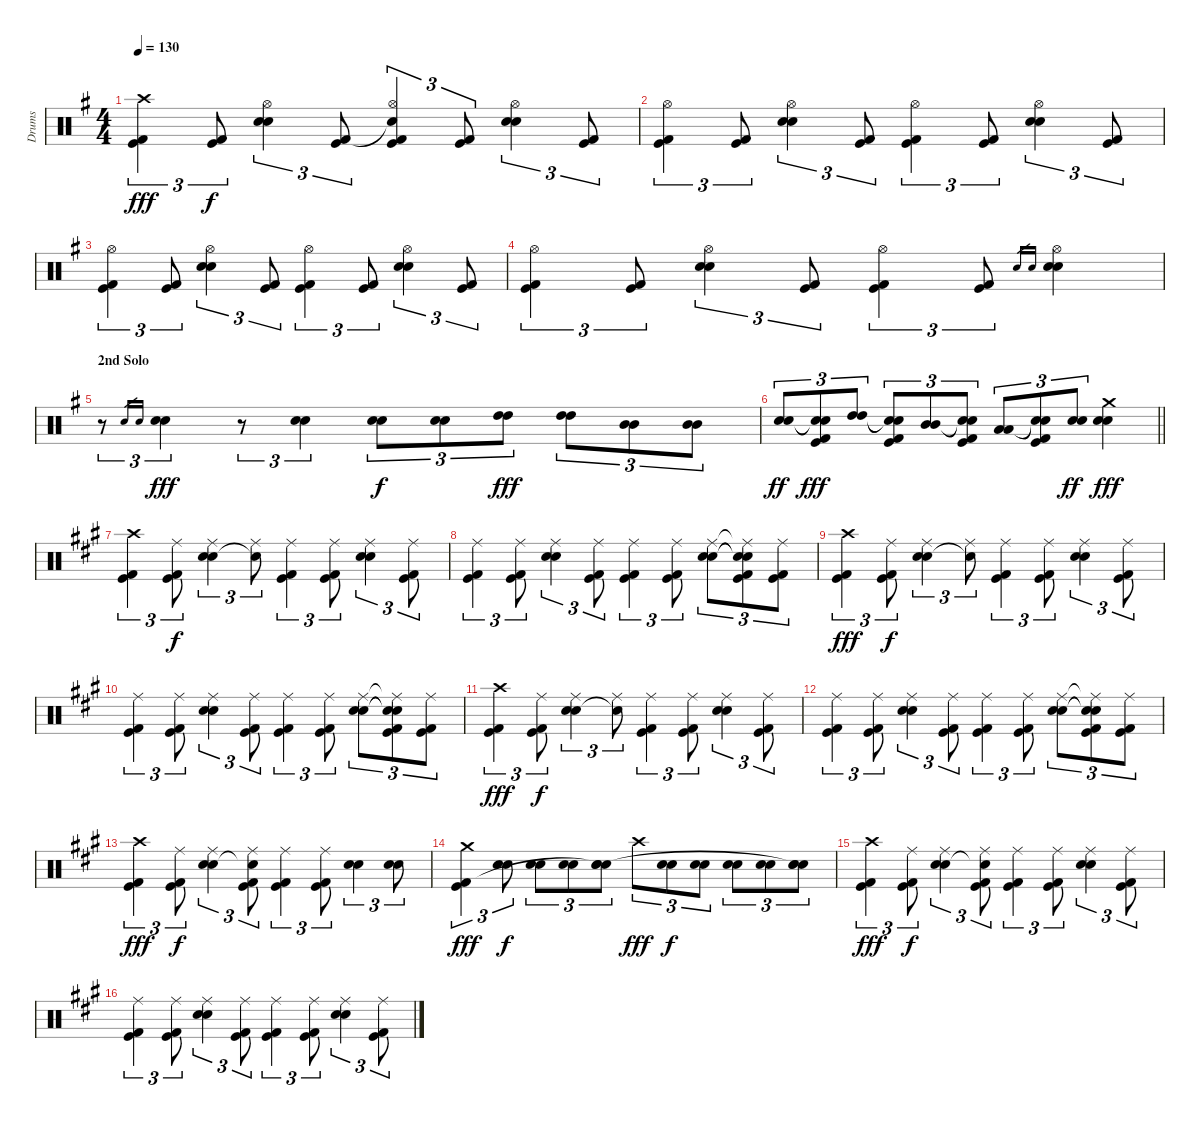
\track ("Drums" "Drums") {instrument percussion}
\staff {score}
\articulation defaults
\ts (4 4)
\tempo 130
\clef neutral
\ks g
("Crash high (hit)" "Kick (hit)" "Kick (hit) 2").4{tu (3 2) dy fff} ("Kick (hit)" "Kick (hit) 2").8{tu (3 2) dy f} ("Hi-Hat (open)" "Electric Snare (hit)" "Snare (hit) 2").4{tu (3 2)} ("Kick (hit)" "Kick (hit) 2").8{tu (3 2)} ("Hi-Hat (open)" "Snare (hit)"{t} "Kick (hit)" "Kick (hit) 2").4{tu (3 2)} ("Kick (hit)" "Kick (hit) 2").8{tu (3 2)} ("Hi-Hat (open)" "Electric Snare (hit)" "Snare (hit) 2").4{tu (3 2)} ("Kick (hit)" "Kick (hit) 2").8{tu (3 2)} |
("Hi-Hat (open)" "Kick (hit)" "Kick (hit) 2").4{tu (3 2)} ("Kick (hit)" "Kick (hit) 2").8{tu (3 2)} ("Hi-Hat (open)" "Electric Snare (hit)" "Snare (hit) 2").4{tu (3 2)} ("Kick (hit)" "Kick (hit) 2").8{tu (3 2)} ("Hi-Hat (open)" "Kick (hit)" "Kick (hit) 2").4{tu (3 2)} ("Kick (hit)" "Kick (hit) 2").8{tu (3 2)} ("Hi-Hat (open)" "Electric Snare (hit)" "Snare (hit) 2").4{tu (3 2)} ("Kick (hit)" "Kick (hit) 2").8{tu (3 2)} |
("Hi-Hat (open)" "Kick (hit)" "Kick (hit) 2").4{tu (3 2)} ("Kick (hit)" "Kick (hit) 2").8{tu (3 2)} ("Hi-Hat (open)" "Electric Snare (hit)" "Snare (hit) 2").4{tu (3 2)} ("Kick (hit)" "Kick (hit) 2").8{tu (3 2)} ("Hi-Hat (open)" "Kick (hit)" "Kick (hit) 2").4{tu (3 2)} ("Kick (hit)" "Kick (hit) 2").8{tu (3 2)} ("Hi-Hat (open)" "Electric Snare (hit)" "Snare (hit) 2").4{tu (3 2)} ("Kick (hit)" "Kick (hit) 2").8{tu (3 2)} |
("Hi-Hat (open)" "Kick (hit)" "Kick (hit) 2").4{tu (3 2)} ("Kick (hit)" "Kick (hit) 2").8{tu (3 2)} ("Hi-Hat (open)" "Electric Snare (hit)" "Snare (hit) 2").4{tu (3 2)} ("Kick (hit)" "Kick (hit) 2").8{tu (3 2)} ("Hi-Hat (open)" "Kick (hit)" "Kick (hit) 2").4{tu (3 2)} ("Kick (hit)" "Kick (hit) 2").8{tu (3 2)} "Electric Snare (hit)".16{gr} "Snare (hit) 2".16{gr} ("Hi-Hat (open)" "Electric Snare (hit)" "Snare (hit) 2").4 |
\section ("" "2nd Solo")
r.8{tu (3 2)} "Electric Snare (hit)".16{gr} "Snare (hit) 2".16{gr} ("Electric Snare (hit)" "Snare (hit) 2").4{tu (3 2) dy fff} r.8{tu (3 2)} ("Electric Snare (hit)" "Snare (hit) 2").4{tu (3 2)} ("Electric Snare (hit)" "Snare (hit) 2").8{tu (3 2) dy f} ("Electric Snare (hit)" "Snare (hit) 2").8{tu (3 2)} ("High Tom (hit)" "High Tom (hit)").8{tu (3 2) dy fff} ("High Tom (hit)" "High Tom (hit)").8{tu (3 2)} ("Mid Tom (hit)" "Mid Tom (hit)").8{tu (3 2)} ("Mid Tom (hit)" "Mid Tom (hit)").8{tu (3 2)} |
\barLineRight lightlight
("Electric Snare (hit)" "Snare (hit) 2").8{tu (3 2) dy ff} ("Snare (hit)"{t} "Snare (hit)"{t} "Kick (hit)" "Kick (hit) 2").8{tu (3 2) dy fff} ("High Tom (hit)" "High Tom (hit)").8{tu (3 2)} ("Snare (hit)"{t} "Snare (hit)"{t} "Kick (hit)" "Kick (hit) 2").8{tu (3 2)} ("Mid Tom (hit)" "Mid Tom (hit)").8{tu (3 2)} ("Snare (hit)"{t} "Snare (hit)"{t} "Kick (hit)" "Kick (hit) 2").8{tu (3 2)} ("Low Tom (hit)" "Low Tom (hit)").8{tu (3 2)} ("Snare (hit)"{t} "Snare (hit)"{t} "Kick (hit)" "Kick (hit) 2").8{tu (3 2)} ("Electric Snare (hit)" "Snare (hit) 2").8{tu (3 2) dy ff} ("Electric Snare (hit)" "Snare (hit) 2" "Crash medium (hit)").4{dy fff} |
\ks a
("Crash high (hit)" "Kick (hit)" "Kick (hit) 2").4{tu (3 2)} ("Ride (middle)" "Kick (hit)" "Kick (hit) 2").8{tu (3 2) dy f} ("Ride (middle)" "Electric Snare (hit)" "Snare (hit) 2").4{tu (3 2)} ("Ride (middle)" "Snare (hit)"{t}).8{tu (3 2)} ("Ride (middle)" "Kick (hit)" "Kick (hit) 2").4{tu (3 2)} ("Ride (middle)" "Kick (hit)" "Kick (hit) 2").8{tu (3 2)} ("Ride (middle)" "Electric Snare (hit)" "Snare (hit) 2").4{tu (3 2)} ("Ride (middle)" "Kick (hit)" "Kick (hit) 2").8{tu (3 2)} |
("Ride (middle)" "Kick (hit)" "Kick (hit) 2").4{tu (3 2)} ("Ride (middle)" "Kick (hit)" "Kick (hit) 2").8{tu (3 2)} ("Ride (middle)" "Electric Snare (hit)" "Snare (hit) 2").4{tu (3 2)} ("Ride (middle)" "Kick (hit)" "Kick (hit) 2").8{tu (3 2)} ("Ride (middle)" "Kick (hit)" "Kick (hit) 2").4{tu (3 2)} ("Ride (middle)" "Kick (hit)" "Kick (hit) 2").8{tu (3 2)} ("Ride (middle)" "Electric Snare (hit)" "Snare (hit) 2").8{tu (3 2)} ("Ride (middle)"{t} "Snare (hit)"{t} "Snare (hit)"{t} "Kick (hit)" "Kick (hit) 2").8{tu (3 2)} ("Ride (middle)" "Kick (hit)" "Kick (hit) 2").8{tu (3 2)} |
("Crash high (hit)" "Kick (hit)" "Kick (hit) 2").4{tu (3 2) dy fff} ("Ride (middle)" "Kick (hit)" "Kick (hit) 2").8{tu (3 2) dy f} ("Ride (middle)" "Electric Snare (hit)" "Snare (hit) 2").4{tu (3 2)} ("Ride (middle)" "Snare (hit)"{t}).8{tu (3 2)} ("Ride (middle)" "Kick (hit)" "Kick (hit) 2").4{tu (3 2)} ("Ride (middle)" "Kick (hit)" "Kick (hit) 2").8{tu (3 2)} ("Ride (middle)" "Electric Snare (hit)" "Snare (hit) 2").4{tu (3 2)} ("Ride (middle)" "Kick (hit)" "Kick (hit) 2").8{tu (3 2)} |
("Ride (middle)" "Kick (hit)" "Kick (hit) 2").4{tu (3 2)} ("Ride (middle)" "Kick (hit)" "Kick (hit) 2").8{tu (3 2)} ("Ride (middle)" "Electric Snare (hit)" "Snare (hit) 2").4{tu (3 2)} ("Ride (middle)" "Kick (hit)" "Kick (hit) 2").8{tu (3 2)} ("Ride (middle)" "Kick (hit)" "Kick (hit) 2").4{tu (3 2)} ("Ride (middle)" "Kick (hit)" "Kick (hit) 2").8{tu (3 2)} ("Ride (middle)" "Electric Snare (hit)" "Snare (hit) 2").8{tu (3 2)} ("Ride (middle)"{t} "Snare (hit)"{t} "Snare (hit)"{t} "Kick (hit)" "Kick (hit) 2").8{tu (3 2)} ("Ride (middle)" "Kick (hit)" "Kick (hit) 2").8{tu (3 2)} |
("Crash high (hit)" "Kick (hit)" "Kick (hit) 2").4{tu (3 2) dy fff} ("Ride (middle)" "Kick (hit)" "Kick (hit) 2").8{tu (3 2) dy f} ("Ride (middle)" "Electric Snare (hit)" "Snare (hit) 2").4{tu (3 2)} ("Ride (middle)" "Snare (hit)"{t}).8{tu (3 2)} ("Ride (middle)" "Kick (hit)" "Kick (hit) 2").4{tu (3 2)} ("Ride (middle)" "Kick (hit)" "Kick (hit) 2").8{tu (3 2)} ("Ride (middle)" "Electric Snare (hit)" "Snare (hit) 2").4{tu (3 2)} ("Ride (middle)" "Kick (hit)" "Kick (hit) 2").8{tu (3 2)} |
("Ride (middle)" "Kick (hit)" "Kick (hit) 2").4{tu (3 2)} ("Ride (middle)" "Kick (hit)" "Kick (hit) 2").8{tu (3 2)} ("Ride (middle)" "Electric Snare (hit)" "Snare (hit) 2").4{tu (3 2)} ("Ride (middle)" "Kick (hit)" "Kick (hit) 2").8{tu (3 2)} ("Ride (middle)" "Kick (hit)" "Kick (hit) 2").4{tu (3 2)} ("Ride (middle)" "Kick (hit)" "Kick (hit) 2").8{tu (3 2)} ("Ride (middle)" "Electric Snare (hit)" "Snare (hit) 2").8{tu (3 2)} ("Ride (middle)"{t} "Snare (hit)"{t} "Snare (hit)"{t} "Kick (hit)" "Kick (hit) 2").8{tu (3 2)} ("Ride (middle)" "Kick (hit)" "Kick (hit) 2").8{tu (3 2)} |
("Crash high (hit)" "Kick (hit)" "Kick (hit) 2").4{tu (3 2) dy fff} ("Ride (middle)" "Kick (hit)" "Kick (hit) 2").8{tu (3 2) dy f} ("Ride (middle)" "Electric Snare (hit)" "Snare (hit) 2").4{tu (3 2)} ("Ride (middle)" "Snare (hit)"{t} "Kick (hit)" "Kick (hit) 2").8{tu (3 2)} ("Ride (middle)" "Kick (hit)" "Kick (hit) 2").4{tu (3 2)} ("Ride (middle)" "Kick (hit)" "Kick (hit) 2").8{tu (3 2)} ("Electric Snare (hit)" "Snare (hit) 2").4{tu (3 2)} ("Electric Snare (hit)" "Snare (hit) 2").8{tu (3 2)} |
("Crash medium (hit)" "Kick (hit)" "Kick (hit) 2").4{tu (3 2) dy fff} ("Electric Snare (hit)" "Snare (hit) 2").8{tu (3 2) dy f} ("Electric Snare (hit)" "Snare (hit) 2").8{tu (3 2)} ("Electric Snare (hit)" "Snare (hit) 2").8{tu (3 2)} ("Electric Snare (hit)" "Snare (hit) 2" "Snare (hit)"{t}).8{tu (3 2)} "Crash high (hit)".8{tu (3 2) dy fff} ("Electric Snare (hit)" "Snare (hit) 2").8{tu (3 2) dy f} ("Electric Snare (hit)" "Snare (hit) 2").8{tu (3 2)} ("Electric Snare (hit)" "Snare (hit) 2").8{tu (3 2)} ("Electric Snare (hit)" "Snare (hit) 2").8{tu (3 2)} ("Electric Snare (hit)" "Snare (hit) 2" "Snare (hit)"{t}).8{tu (3 2)} |
("Crash high (hit)" "Kick (hit)" "Kick (hit) 2").4{tu (3 2) dy fff} ("Ride (middle)" "Kick (hit)" "Kick (hit) 2").8{tu (3 2) dy f} ("Ride (middle)" "Electric Snare (hit)" "Snare (hit) 2").4{tu (3 2)} ("Ride (middle)" "Snare (hit)"{t} "Kick (hit)" "Kick (hit) 2").8{tu (3 2)} ("Ride (middle)" "Kick (hit)" "Kick (hit) 2").4{tu (3 2)} ("Ride (middle)" "Kick (hit)" "Kick (hit) 2").8{tu (3 2)} ("Ride (middle)" "Electric Snare (hit)" "Snare (hit) 2").4{tu (3 2)} ("Ride (middle)" "Kick (hit)" "Kick (hit) 2").8{tu (3 2)} |
("Ride (middle)" "Kick (hit)" "Kick (hit) 2").4{tu (3 2)} ("Ride (middle)" "Kick (hit)" "Kick (hit) 2").8{tu (3 2)} ("Ride (middle)" "Electric Snare (hit)" "Snare (hit) 2").4{tu (3 2)} ("Ride (middle)" "Kick (hit)" "Kick (hit) 2").8{tu (3 2)} ("Ride (middle)" "Kick (hit)" "Kick (hit) 2").4{tu (3 2)} ("Ride (middle)" "Kick (hit)" "Kick (hit) 2").8{tu (3 2)} ("Ride (middle)" "Electric Snare (hit)" "Snare (hit) 2").4{tu (3 2)} ("Ride (middle)" "Kick (hit)" "Kick (hit) 2").8{tu (3 2)}
